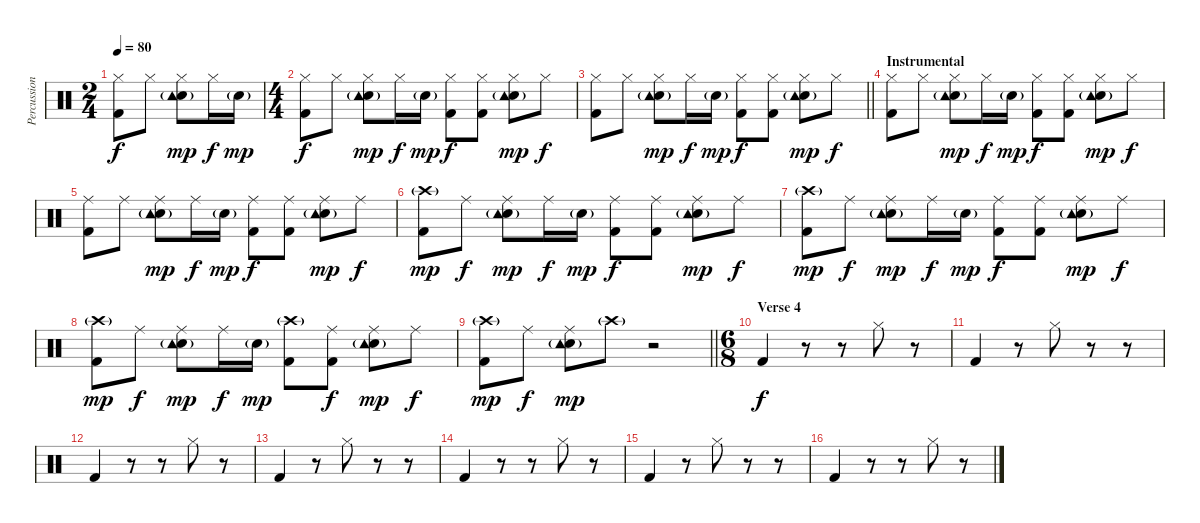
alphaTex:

\track ("Percussion" "Percussion") {instrument percussion}
\staff {score}
\articulation defaults
\ts (2 4)
\tempo 80
\clef neutral
\ks c
("Hi-Hat (closed)" "Kick (hit) 2").8{dy f} "Hi-Hat (closed)".8 ("Hi-Hat (closed)" "Snare (hit) 2" "Tambourine (hit)"{g}).8{dy mp} "Hi-Hat (closed)".16{dy f} "Snare (hit) 2"{g}.16{dy mp} |
\ts (4 4)
("Hi-Hat (closed)" "Kick (hit) 2").8{dy f} "Hi-Hat (closed)".8 ("Hi-Hat (closed)" "Snare (hit) 2" "Tambourine (hit)"{g}).8{dy mp} "Hi-Hat (closed)".16{dy f} "Snare (hit) 2"{g}.16{dy mp} ("Hi-Hat (closed)" "Kick (hit) 2").8{dy f} ("Hi-Hat (closed)" "Kick (hit) 2").8 ("Hi-Hat (closed)" "Snare (hit) 2" "Tambourine (hit)"{g}).8{dy mp} "Hi-Hat (closed)".8{dy f} |
\barLineRight lightlight
("Hi-Hat (closed)" "Kick (hit) 2").8 "Hi-Hat (closed)".8 ("Hi-Hat (closed)" "Snare (hit) 2" "Tambourine (hit)"{g}).8{dy mp} "Hi-Hat (closed)".16{dy f} "Snare (hit) 2"{g}.16{dy mp} ("Hi-Hat (closed)" "Kick (hit) 2").8{dy f} ("Hi-Hat (closed)" "Kick (hit) 2").8 ("Hi-Hat (closed)" "Snare (hit) 2" "Tambourine (hit)"{g}).8{dy mp} "Hi-Hat (closed)".8{dy f} |
\section ("" "Instrumental")
("Hi-Hat (closed)" "Kick (hit) 2").8 "Hi-Hat (closed)".8 ("Hi-Hat (closed)" "Snare (hit) 2" "Tambourine (hit)"{g}).8{dy mp} "Hi-Hat (closed)".16{dy f} "Snare (hit) 2"{g}.16{dy mp} ("Hi-Hat (closed)" "Kick (hit) 2").8{dy f} ("Hi-Hat (closed)" "Kick (hit) 2").8 ("Hi-Hat (closed)" "Snare (hit) 2" "Tambourine (hit)"{g}).8{dy mp} "Hi-Hat (closed)".8{dy f} |
("Ride (middle)" "Kick (hit) 2").8 "Ride (middle)".8 ("Ride (middle)" "Snare (hit) 2" "Tambourine (hit)"{g}).8{dy mp} "Ride (middle)".16{dy f} "Snare (hit) 2"{g}.16{dy mp} ("Ride (middle)" "Kick (hit) 2").8{dy f} ("Ride (middle)" "Kick (hit) 2").8 ("Ride (middle)" "Snare (hit) 2" "Tambourine (hit)"{g}).8{dy mp} "Ride (middle)".8{dy f} |
("Crash high (hit)"{g} "Kick (hit) 2").8{dy mp} "Ride (middle)".8{dy f} ("Ride (middle)" "Snare (hit) 2" "Tambourine (hit)"{g}).8{dy mp} "Ride (middle)".16{dy f} "Snare (hit) 2"{g}.16{dy mp} ("Ride (middle)" "Kick (hit) 2").8{dy f} ("Ride (middle)" "Kick (hit) 2").8 ("Ride (middle)" "Snare (hit) 2" "Tambourine (hit)"{g}).8{dy mp} "Ride (middle)".8{dy f} |
("Crash high (hit)"{g} "Kick (hit) 2").8{dy mp} "Ride (middle)".8{dy f} ("Ride (middle)" "Snare (hit) 2" "Tambourine (hit)"{g}).8{dy mp} "Ride (middle)".16{dy f} "Snare (hit) 2"{g}.16{dy mp} ("Ride (middle)" "Kick (hit) 2").8{dy f} ("Ride (middle)" "Kick (hit) 2").8 ("Ride (middle)" "Snare (hit) 2" "Tambourine (hit)"{g}).8{dy mp} "Ride (middle)".8{dy f} |
("Crash high (hit)"{g} "Kick (hit) 2").8{dy mp} "Ride (middle)".8{dy f} ("Ride (middle)" "Snare (hit) 2" "Tambourine (hit)"{g}).8{dy mp} "Ride (middle)".16{dy f} "Snare (hit) 2"{g}.16{dy mp} ("Crash high (hit)"{g} "Kick (hit) 2").8 ("Ride (middle)" "Kick (hit) 2").8{dy f} ("Ride (middle)" "Snare (hit) 2" "Tambourine (hit)"{g}).8{dy mp} "Ride (middle)".8{dy f} |
\barLineRight lightlight
("Crash high (hit)"{g} "Kick (hit) 2").8{dy mp} "Ride (middle)".8{dy f} ("Ride (middle)" "Snare (hit) 2" "Tambourine (hit)"{g}).8{dy mp} "Crash high (hit)"{g}.8 r.2 |
\ts (6 8)
\section ("" "Verse 4")
"Kick (hit) 2".4{dy f volume 6} r.8 r.8 "Hi-Hat (closed)".8{volume 13} r.8 |
"Kick (hit) 2".4{volume 6} r.8 "Hi-Hat (closed)".8{volume 13} r.8 r.8 |
"Kick (hit) 2".4{volume 6} r.8 r.8 "Hi-Hat (closed)".8{volume 13} r.8 |
"Kick (hit) 2".4{volume 6} r.8 "Hi-Hat (closed)".8{volume 13} r.8 r.8 |
"Kick (hit) 2".4{volume 6} r.8 r.8 "Hi-Hat (closed)".8{volume 13} r.8 |
"Kick (hit) 2".4{volume 6} r.8 "Hi-Hat (closed)".8{volume 13} r.8 r.8 |
"Kick (hit) 2".4{volume 6} r.8 r.8 "Hi-Hat (closed)".8{volume 13} r.8
